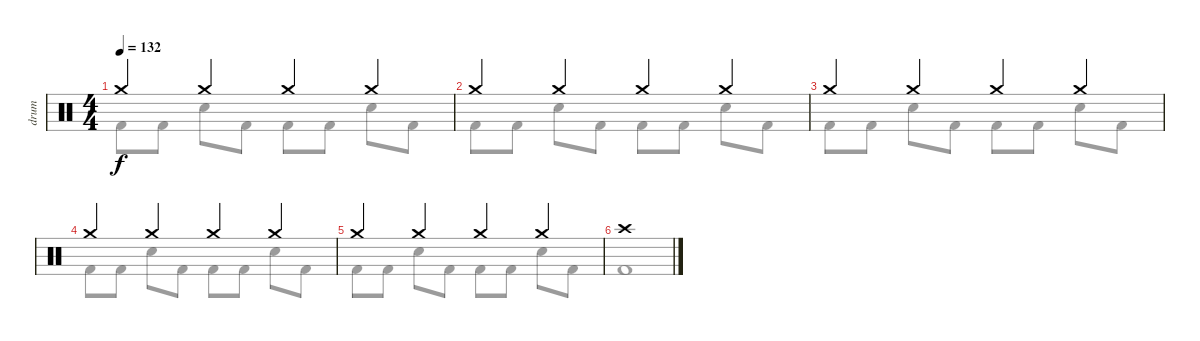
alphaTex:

\track ("drum" "drum") {instrument percussion}
\staff {score}
\articulation defaults
\voice
\ts (4 4)
\tempo 132
\clef neutral
\ks c "Crash medium (hit)".4{dy f} "Crash medium (hit)".4 "Crash medium (hit)".4 "Crash medium (hit)".4
|
"Crash medium (hit)".4 "Crash medium (hit)".4 "Crash medium (hit)".4 "Crash medium (hit)".4 |
"Crash medium (hit)".4 "Crash medium (hit)".4 "Crash medium (hit)".4 "Crash medium (hit)".4 |
"Crash medium (hit)".4 "Crash medium (hit)".4 "Crash medium (hit)".4 "Crash medium (hit)".4 |
"Crash medium (hit)".4 "Crash medium (hit)".4 "Crash medium (hit)".4 "Crash medium (hit)".4 |
"Crash high (hit)".1
\voice
\clef neutral
\ottava regular
\simile none
\ks c "Kick (hit) 2".8{dy f} "Kick (hit) 2".8 "Snare (hit) 2".8 "Kick (hit) 2".8 "Kick (hit) 2".8 "Kick (hit) 2".8 "Snare (hit) 2".8 "Kick (hit) 2".8
|
"Kick (hit) 2".8 "Kick (hit) 2".8 "Snare (hit) 2".8 "Kick (hit) 2".8 "Kick (hit) 2".8 "Kick (hit) 2".8 "Snare (hit) 2".8 "Kick (hit) 2".8 |
"Kick (hit) 2".8 "Kick (hit) 2".8 "Snare (hit) 2".8 "Kick (hit) 2".8 "Kick (hit) 2".8 "Kick (hit) 2".8 "Snare (hit) 2".8 "Kick (hit) 2".8 |
"Kick (hit) 2".8 "Kick (hit) 2".8 "Snare (hit) 2".8 "Kick (hit) 2".8 "Kick (hit) 2".8 "Kick (hit) 2".8 "Snare (hit) 2".8 "Kick (hit) 2".8 |
"Kick (hit) 2".8 "Kick (hit) 2".8 "Snare (hit) 2".8 "Kick (hit) 2".8 "Kick (hit) 2".8 "Kick (hit) 2".8 "Snare (hit) 2".8 "Kick (hit) 2".8 |
"Kick (hit) 2".1
